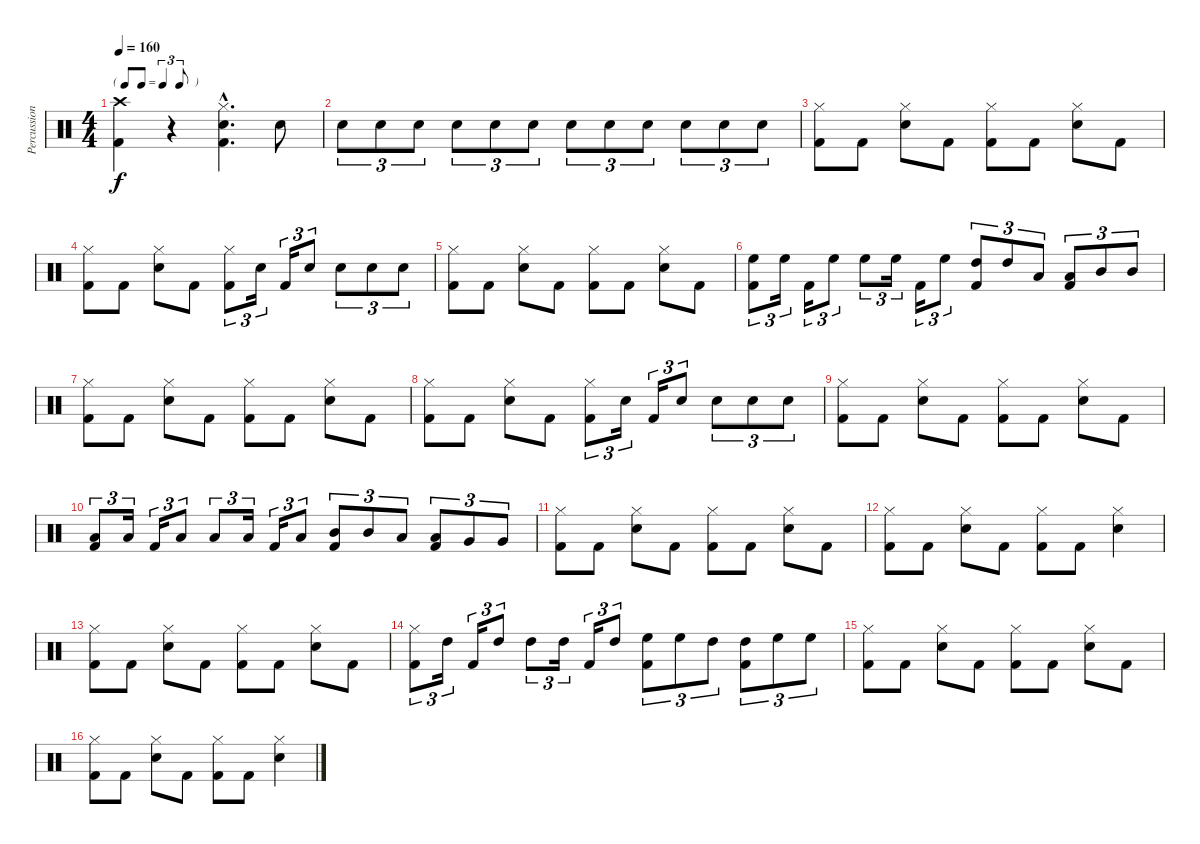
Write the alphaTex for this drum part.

\track ("Percussion" "Percussion") {instrument percussion}
\staff {score}
\articulation defaults
\ts (4 4)
\tf triplet8th
\tempo 160
\clef neutral
\ks c
("Kick (hit) 2" "Crash high (hit)").4{dy f} r.4 ("Kick (hit) 2"{hac} "Snare (hit) 2"{hac} "Hi-Hat (closed)"{hac}).4{d} "Snare (hit) 2".8 |
"Snare (hit) 2".8{tu (3 2)} "Snare (hit) 2".8{tu (3 2)} "Snare (hit) 2".8{tu (3 2)} "Snare (hit) 2".8{tu (3 2)} "Snare (hit) 2".8{tu (3 2)} "Snare (hit) 2".8{tu (3 2)} "Snare (hit) 2".8{tu (3 2)} "Snare (hit) 2".8{tu (3 2)} "Snare (hit) 2".8{tu (3 2)} "Snare (hit) 2".8{tu (3 2)} "Snare (hit) 2".8{tu (3 2)} "Snare (hit) 2".8{tu (3 2)} |
("Kick (hit) 2" "Hi-Hat (closed)").8 "Kick (hit) 2".8 ("Snare (hit) 2" "Hi-Hat (closed)").8 "Kick (hit) 2".8 ("Kick (hit) 2" "Hi-Hat (closed)").8 "Kick (hit) 2".8 ("Snare (hit) 2" "Hi-Hat (closed)").8 "Kick (hit) 2".8 |
("Kick (hit) 2" "Hi-Hat (closed)").8 "Kick (hit) 2".8 ("Snare (hit) 2" "Hi-Hat (closed)").8 "Kick (hit) 2".8 ("Kick (hit) 2" "Hi-Hat (closed)").8{tu (3 2)} "Snare (hit) 2".16{tu (3 2)} "Kick (hit) 2".16{tu (3 2)} "Snare (hit) 2".8{tu (3 2)} "Snare (hit) 2".8{tu (3 2)} "Snare (hit) 2".8{tu (3 2)} "Snare (hit) 2".8{tu (3 2)} |
("Kick (hit) 2" "Hi-Hat (closed)").8 "Kick (hit) 2".8 ("Snare (hit) 2" "Hi-Hat (closed)").8 "Kick (hit) 2".8 ("Kick (hit) 2" "Hi-Hat (closed)").8 "Kick (hit) 2".8 ("Snare (hit) 2" "Hi-Hat (closed)").8 "Kick (hit) 2".8 |
("Kick (hit) 2" "High Floor Tom (hit)").8{tu (3 2)} "High Floor Tom (hit)".16{tu (3 2)} "Kick (hit) 2".16{tu (3 2)} "High Floor Tom (hit)".8{tu (3 2)} "High Floor Tom (hit)".8{tu (3 2)} "High Floor Tom (hit)".16{tu (3 2)} "Kick (hit) 2".16{tu (3 2)} "High Floor Tom (hit)".8{tu (3 2)} ("Kick (hit) 2" "High Tom (hit)").8{tu (3 2)} "High Tom (hit)".8{tu (3 2)} "Low Tom (hit)".8{tu (3 2)} ("Kick (hit) 2" "Low Tom (hit)").8{tu (3 2)} "Mid Tom (hit)".8{tu (3 2)} "Mid Tom (hit)".8{tu (3 2)} |
("Kick (hit) 2" "Hi-Hat (closed)").8 "Kick (hit) 2".8 ("Snare (hit) 2" "Hi-Hat (closed)").8 "Kick (hit) 2".8 ("Kick (hit) 2" "Hi-Hat (closed)").8 "Kick (hit) 2".8 ("Snare (hit) 2" "Hi-Hat (closed)").8 "Kick (hit) 2".8 |
("Kick (hit) 2" "Hi-Hat (closed)").8 "Kick (hit) 2".8 ("Snare (hit) 2" "Hi-Hat (closed)").8 "Kick (hit) 2".8 ("Kick (hit) 2" "Hi-Hat (closed)").8{tu (3 2)} "Snare (hit) 2".16{tu (3 2)} "Kick (hit) 2".16{tu (3 2)} "Snare (hit) 2".8{tu (3 2)} "Snare (hit) 2".8{tu (3 2)} "Snare (hit) 2".8{tu (3 2)} "Snare (hit) 2".8{tu (3 2)} |
("Kick (hit) 2" "Hi-Hat (closed)").8 "Kick (hit) 2".8 ("Snare (hit) 2" "Hi-Hat (closed)").8 "Kick (hit) 2".8 ("Kick (hit) 2" "Hi-Hat (closed)").8 "Kick (hit) 2".8 ("Snare (hit) 2" "Hi-Hat (closed)").8 "Kick (hit) 2".8 |
("Kick (hit) 2" "Low Tom (hit)").8{tu (3 2)} "Low Tom (hit)".16{tu (3 2)} "Kick (hit) 2".16{tu (3 2)} "Low Tom (hit)".8{tu (3 2)} "Low Tom (hit)".8{tu (3 2)} "Low Tom (hit)".16{tu (3 2)} "Kick (hit) 2".16{tu (3 2)} "Low Tom (hit)".8{tu (3 2)} ("Kick (hit) 2" "Mid Tom (hit)").8{tu (3 2)} "Mid Tom (hit)".8{tu (3 2)} "Low Tom (hit)".8{tu (3 2)} ("Kick (hit) 2" "Low Tom (hit)").8{tu (3 2)} "Very Low Tom (hit)".8{tu (3 2)} "Very Low Tom (hit)".8{tu (3 2)} |
("Kick (hit) 2" "Hi-Hat (closed)").8 "Kick (hit) 2".8 ("Snare (hit) 2" "Hi-Hat (closed)").8 "Kick (hit) 2".8 ("Kick (hit) 2" "Hi-Hat (closed)").8 "Kick (hit) 2".8 ("Snare (hit) 2" "Hi-Hat (closed)").8 "Kick (hit) 2".8 |
("Kick (hit) 2" "Hi-Hat (closed)").8 "Kick (hit) 2".8 ("Snare (hit) 2" "Hi-Hat (closed)").8 "Kick (hit) 2".8 ("Kick (hit) 2" "Hi-Hat (closed)").8 "Kick (hit) 2".8 ("Snare (hit) 2" "Hi-Hat (closed)").4 |
("Kick (hit) 2" "Hi-Hat (closed)").8 "Kick (hit) 2".8 ("Snare (hit) 2" "Hi-Hat (closed)").8 "Kick (hit) 2".8 ("Kick (hit) 2" "Hi-Hat (closed)").8 "Kick (hit) 2".8 ("Snare (hit) 2" "Hi-Hat (closed)").8 "Kick (hit) 2".8 |
("Kick (hit) 2" "Hi-Hat (closed)").8{tu (3 2)} "High Tom (hit)".16{tu (3 2)} "Kick (hit) 2".16{tu (3 2)} "High Tom (hit)".8{tu (3 2)} "High Tom (hit)".8{tu (3 2)} "High Tom (hit)".16{tu (3 2)} "Kick (hit) 2".16{tu (3 2)} "High Tom (hit)".8{tu (3 2)} ("Kick (hit) 2" "High Floor Tom (hit)").8{tu (3 2)} "High Floor Tom (hit)".8{tu (3 2)} "High Tom (hit)".8{tu (3 2)} ("Kick (hit) 2" "High Tom (hit)").8{tu (3 2)} "High Floor Tom (hit)".8{tu (3 2)} "High Floor Tom (hit)".8{tu (3 2)} |
("Kick (hit) 2" "Hi-Hat (closed)").8 "Kick (hit) 2".8 ("Snare (hit) 2" "Hi-Hat (closed)").8 "Kick (hit) 2".8 ("Kick (hit) 2" "Hi-Hat (closed)").8 "Kick (hit) 2".8 ("Snare (hit) 2" "Hi-Hat (closed)").8 "Kick (hit) 2".8 |
("Kick (hit) 2" "Hi-Hat (closed)").8 "Kick (hit) 2".8 ("Snare (hit) 2" "Hi-Hat (closed)").8 "Kick (hit) 2".8 ("Kick (hit) 2" "Hi-Hat (closed)").8 "Kick (hit) 2".8 ("Snare (hit) 2" "Hi-Hat (closed)").4
